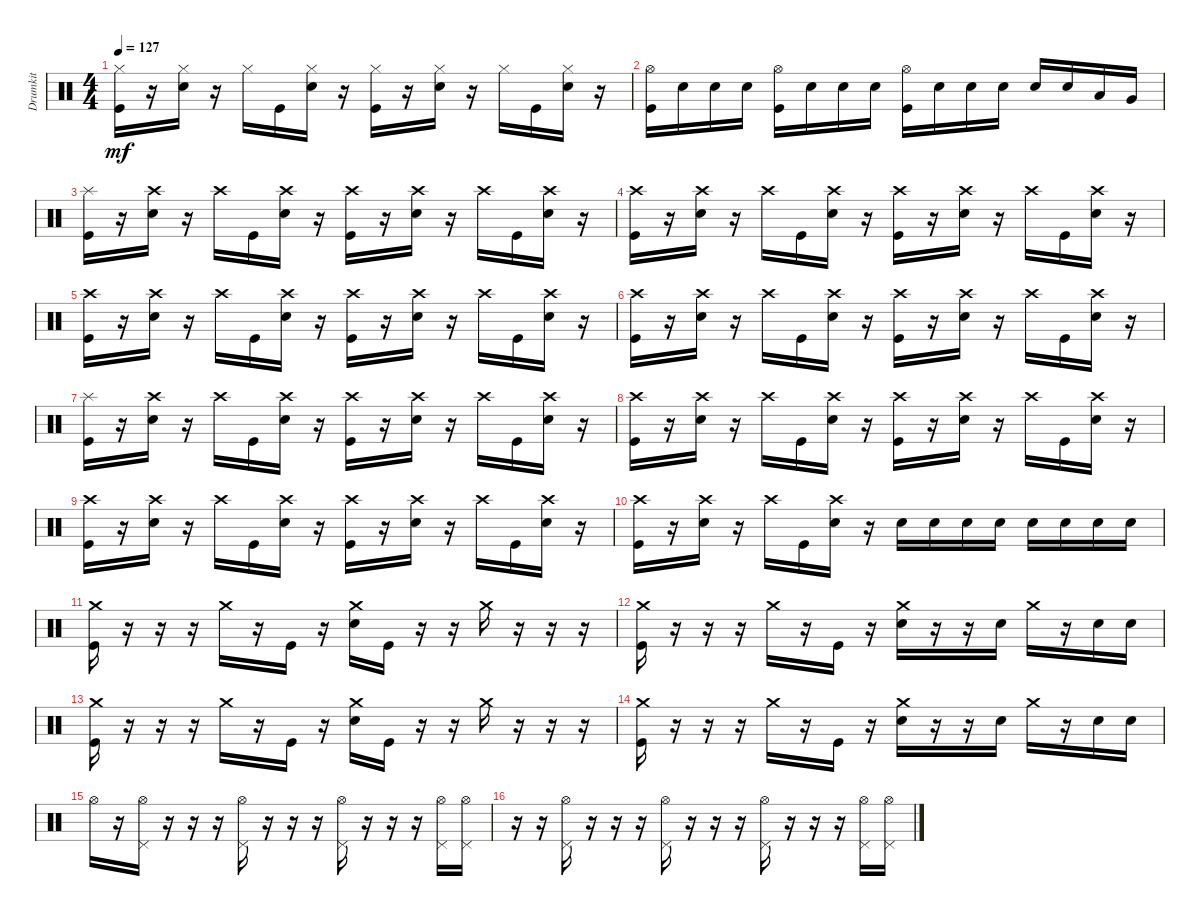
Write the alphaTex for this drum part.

\track ("Drumkit" "Drumkit") {instrument percussion}
\staff {score}
\articulation defaults
\ts (4 4)
\tempo 127
\clef neutral
\ks c
("Kick (hit)" "Hi-Hat (closed)").16{dy mf} r.16 ("Snare (hit) 2" "Hi-Hat (closed)").16 r.16 "Hi-Hat (closed)".16 "Kick (hit)".16 ("Snare (hit) 2" "Hi-Hat (closed)").16 r.16 ("Kick (hit)" "Hi-Hat (closed)").16 r.16 ("Snare (hit) 2" "Hi-Hat (closed)").16 r.16 "Hi-Hat (closed)".16 "Kick (hit)".16 ("Snare (hit) 2" "Hi-Hat (closed)").16 r.16 |
("Hi-Hat (open)" "Kick (hit)").16 "Snare (hit) 2".16 "Snare (hit) 2".16 "Snare (hit) 2".16 ("Hi-Hat (open)" "Kick (hit)").16 "Snare (hit) 2".16 "Snare (hit) 2".16 "Snare (hit) 2".16 ("Hi-Hat (open)" "Kick (hit)").16 "Snare (hit) 2".16 "Snare (hit) 2".16 "Snare (hit) 2".16 "Snare (hit) 2".16 "Snare (hit) 2".16 "Low Tom (hit)".16 "Very Low Tom (hit)".16 |
("Kick (hit)" "Splash (hit)").16 r.16 ("Snare (hit) 2" "Crash high (hit)").16 r.16 "Crash high (hit)".16 "Kick (hit)".16 ("Snare (hit) 2" "Crash high (hit)").16 r.16 ("Kick (hit)" "Crash high (hit)").16 r.16 ("Snare (hit) 2" "Crash high (hit)").16 r.16 "Crash high (hit)".16 "Kick (hit)".16 ("Snare (hit) 2" "Crash high (hit)").16 r.16 |
("Kick (hit)" "Crash high (hit)").16 r.16 ("Snare (hit) 2" "Crash high (hit)").16 r.16 "Crash high (hit)".16 "Kick (hit)".16 ("Snare (hit) 2" "Crash high (hit)").16 r.16 ("Kick (hit)" "Crash high (hit)").16 r.16 ("Snare (hit) 2" "Crash high (hit)").16 r.16 "Crash high (hit)".16 "Kick (hit)".16 ("Snare (hit) 2" "Crash high (hit)").16 r.16 |
("Kick (hit)" "Crash high (hit)").16 r.16 ("Snare (hit) 2" "Crash high (hit)").16 r.16 "Crash high (hit)".16 "Kick (hit)".16 ("Snare (hit) 2" "Crash high (hit)").16 r.16 ("Kick (hit)" "Crash high (hit)").16 r.16 ("Snare (hit) 2" "Crash high (hit)").16 r.16 "Crash high (hit)".16 "Kick (hit)".16 ("Snare (hit) 2" "Crash high (hit)").16 r.16 |
("Kick (hit)" "Crash high (hit)").16 r.16 ("Snare (hit) 2" "Crash high (hit)").16 r.16 "Crash high (hit)".16 "Kick (hit)".16 ("Snare (hit) 2" "Crash high (hit)").16 r.16 ("Kick (hit)" "Crash high (hit)").16 r.16 ("Snare (hit) 2" "Crash high (hit)").16 r.16 "Crash high (hit)".16 "Kick (hit)".16 ("Snare (hit) 2" "Crash high (hit)").16 r.16 |
("Kick (hit)" "Splash (hit)").16 r.16 ("Snare (hit) 2" "Crash high (hit)").16 r.16 "Crash high (hit)".16 "Kick (hit)".16 ("Snare (hit) 2" "Crash high (hit)").16 r.16 ("Kick (hit)" "Crash high (hit)").16 r.16 ("Snare (hit) 2" "Crash high (hit)").16 r.16 "Crash high (hit)".16 "Kick (hit)".16 ("Snare (hit) 2" "Crash high (hit)").16 r.16 |
("Kick (hit)" "Crash high (hit)").16 r.16 ("Snare (hit) 2" "Crash high (hit)").16 r.16 "Crash high (hit)".16 "Kick (hit)".16 ("Snare (hit) 2" "Crash high (hit)").16 r.16 ("Kick (hit)" "Crash high (hit)").16 r.16 ("Snare (hit) 2" "Crash high (hit)").16 r.16 "Crash high (hit)".16 "Kick (hit)".16 ("Snare (hit) 2" "Crash high (hit)").16 r.16 |
("Kick (hit)" "Crash high (hit)").16 r.16 ("Snare (hit) 2" "Crash high (hit)").16 r.16 "Crash high (hit)".16 "Kick (hit)".16 ("Snare (hit) 2" "Crash high (hit)").16 r.16 ("Kick (hit)" "Crash high (hit)").16 r.16 ("Snare (hit) 2" "Crash high (hit)").16 r.16 "Crash high (hit)".16 "Kick (hit)".16 ("Snare (hit) 2" "Crash high (hit)").16 r.16 |
("Kick (hit)" "Crash high (hit)").16 r.16 ("Snare (hit) 2" "Crash high (hit)").16 r.16 "Crash high (hit)".16 "Kick (hit)".16 ("Snare (hit) 2" "Crash high (hit)").16 r.16 "Snare (hit) 2".16 "Snare (hit) 2".16 "Snare (hit) 2".16 "Snare (hit) 2".16 "Snare (hit) 2".16 "Snare (hit) 2".16 "Snare (hit) 2".16 "Snare (hit) 2".16 |
("Kick (hit)" "Crash medium (hit)").16 r.16 r.16 r.16 "Crash medium (hit)".16 r.16 "Kick (hit)".16 r.16 ("Crash medium (hit)" "Snare (hit) 2").16 "Kick (hit)".16 r.16 r.16 "Crash medium (hit)".16 r.16 r.16 r.16 |
("Kick (hit)" "Crash medium (hit)").16 r.16 r.16 r.16 "Crash medium (hit)".16 r.16 "Kick (hit)".16 r.16 ("Crash medium (hit)" "Snare (hit) 2").16 r.16 r.16 "Snare (hit) 2".16 "Crash medium (hit)".16 r.16 "Snare (hit) 2".16 "Snare (hit) 2".16 |
("Kick (hit)" "Crash medium (hit)").16 r.16 r.16 r.16 "Crash medium (hit)".16 r.16 "Kick (hit)".16 r.16 ("Crash medium (hit)" "Snare (hit) 2").16 "Kick (hit)".16 r.16 r.16 "Crash medium (hit)".16 r.16 r.16 r.16 |
("Kick (hit)" "Crash medium (hit)").16 r.16 r.16 r.16 "Crash medium (hit)".16 r.16 "Kick (hit)".16 r.16 ("Crash medium (hit)" "Snare (hit) 2").16 r.16 r.16 "Snare (hit) 2".16 "Crash medium (hit)".16 r.16 "Snare (hit) 2".16 "Snare (hit) 2".16 |
"Hi-Hat (open)".16 r.16 ("Hi-Hat (open)" "Pedal Hi-Hat (hit)").16 r.16 r.16 r.16 ("Hi-Hat (open)" "Pedal Hi-Hat (hit)").16 r.16 r.16 r.16 ("Hi-Hat (open)" "Pedal Hi-Hat (hit)").16 r.16 r.16 r.16 ("Hi-Hat (open)" "Pedal Hi-Hat (hit)").16 ("Hi-Hat (open)" "Pedal Hi-Hat (hit)").16 |
r.16 r.16 ("Hi-Hat (open)" "Pedal Hi-Hat (hit)").16 r.16 r.16 r.16 ("Hi-Hat (open)" "Pedal Hi-Hat (hit)").16 r.16 r.16 r.16 ("Hi-Hat (open)" "Pedal Hi-Hat (hit)").16 r.16 r.16 r.16 ("Hi-Hat (open)" "Pedal Hi-Hat (hit)").16 ("Hi-Hat (open)" "Pedal Hi-Hat (hit)").16
